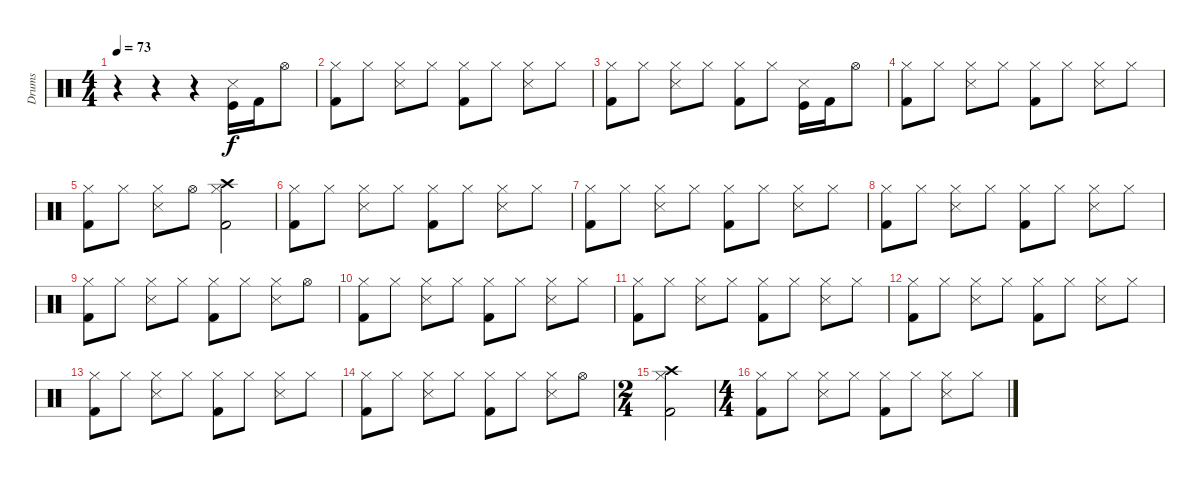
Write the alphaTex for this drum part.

\track ("Drums" "Drums") {instrument percussion}
\staff {score}
\articulation defaults
\ts (4 4)
\tempo 73
\clef neutral
\ks c
r.4{dy f} r.4 r.4 ("Snare (side stick) 3" "Kick (hit)").16 "Kick (hit) 2".16 "Hi-Hat (open)".8 |
("Hi-Hat (closed)" "Kick (hit) 2").8 "Hi-Hat (closed)".8 ("Hi-Hat (closed)" "Snare (side stick) 3").8 "Hi-Hat (closed)".8 ("Hi-Hat (closed)" "Kick (hit) 2").8 "Hi-Hat (closed)".8 ("Hi-Hat (closed)" "Snare (side stick) 3").8 "Hi-Hat (closed)".8 |
("Hi-Hat (closed)" "Kick (hit) 2").8 "Hi-Hat (closed)".8 ("Hi-Hat (closed)" "Snare (side stick) 3").8 "Hi-Hat (closed)".8 ("Hi-Hat (closed)" "Kick (hit) 2").8 "Hi-Hat (closed)".8 ("Snare (side stick) 3" "Kick (hit)").16 "Kick (hit) 2".16 "Hi-Hat (open)".8 |
("Hi-Hat (closed)" "Kick (hit) 2").8 "Hi-Hat (closed)".8 ("Hi-Hat (closed)" "Snare (side stick) 3").8 "Hi-Hat (closed)".8 ("Hi-Hat (closed)" "Kick (hit) 2").8 "Hi-Hat (closed)".8 ("Hi-Hat (closed)" "Snare (side stick) 3").8 "Hi-Hat (closed)".8 |
("Hi-Hat (closed)" "Kick (hit) 2").8 "Hi-Hat (closed)".8 ("Hi-Hat (closed)" "Snare (side stick) 3").8 "Hi-Hat (open)".8 ("Hi-Hat (closed)" "Kick (hit) 2" "Crash high (hit)").2 |
("Hi-Hat (closed)" "Kick (hit) 2").8 "Hi-Hat (closed)".8 ("Hi-Hat (closed)" "Snare (side stick) 3").8 "Hi-Hat (closed)".8 ("Hi-Hat (closed)" "Kick (hit) 2").8 "Hi-Hat (closed)".8 ("Hi-Hat (closed)" "Snare (side stick) 3").8 "Hi-Hat (closed)".8 |
("Hi-Hat (closed)" "Kick (hit) 2").8 "Hi-Hat (closed)".8 ("Hi-Hat (closed)" "Snare (side stick) 3").8 "Hi-Hat (closed)".8 ("Hi-Hat (closed)" "Kick (hit) 2").8 "Hi-Hat (closed)".8 ("Hi-Hat (closed)" "Snare (side stick) 3").8 "Hi-Hat (closed)".8 |
("Hi-Hat (closed)" "Kick (hit) 2").8 "Hi-Hat (closed)".8 ("Hi-Hat (closed)" "Snare (side stick) 3").8 "Hi-Hat (closed)".8 ("Hi-Hat (closed)" "Kick (hit) 2").8 "Hi-Hat (closed)".8 ("Hi-Hat (closed)" "Snare (side stick) 3").8 "Hi-Hat (closed)".8 |
("Hi-Hat (closed)" "Kick (hit) 2").8 "Hi-Hat (closed)".8 ("Hi-Hat (closed)" "Snare (side stick) 3").8 "Hi-Hat (closed)".8 ("Hi-Hat (closed)" "Kick (hit) 2").8 "Hi-Hat (closed)".8 ("Hi-Hat (closed)" "Snare (side stick) 3").8 "Hi-Hat (open)".8 |
("Hi-Hat (closed)" "Kick (hit) 2").8 "Hi-Hat (closed)".8 ("Hi-Hat (closed)" "Snare (side stick) 3").8 "Hi-Hat (closed)".8 ("Hi-Hat (closed)" "Kick (hit) 2").8 "Hi-Hat (closed)".8 ("Hi-Hat (closed)" "Snare (side stick) 3").8 "Hi-Hat (closed)".8 |
("Hi-Hat (closed)" "Kick (hit) 2").8 "Hi-Hat (closed)".8 ("Hi-Hat (closed)" "Snare (side stick) 3").8 "Hi-Hat (closed)".8 ("Hi-Hat (closed)" "Kick (hit) 2").8 "Hi-Hat (closed)".8 ("Hi-Hat (closed)" "Snare (side stick) 3").8 "Hi-Hat (closed)".8 |
("Hi-Hat (closed)" "Kick (hit) 2").8 "Hi-Hat (closed)".8 ("Hi-Hat (closed)" "Snare (side stick) 3").8 "Hi-Hat (closed)".8 ("Hi-Hat (closed)" "Kick (hit) 2").8 "Hi-Hat (closed)".8 ("Hi-Hat (closed)" "Snare (side stick) 3").8 "Hi-Hat (closed)".8 |
("Hi-Hat (closed)" "Kick (hit) 2").8 "Hi-Hat (closed)".8 ("Hi-Hat (closed)" "Snare (side stick) 3").8 "Hi-Hat (closed)".8 ("Hi-Hat (closed)" "Kick (hit) 2").8 "Hi-Hat (closed)".8 ("Hi-Hat (closed)" "Snare (side stick) 3").8 "Hi-Hat (closed)".8 |
("Hi-Hat (closed)" "Kick (hit) 2").8 "Hi-Hat (closed)".8 ("Hi-Hat (closed)" "Snare (side stick) 3").8 "Hi-Hat (closed)".8 ("Hi-Hat (closed)" "Kick (hit) 2").8 "Hi-Hat (closed)".8 ("Hi-Hat (closed)" "Snare (side stick) 3").8 "Hi-Hat (open)".8 |
\ts (2 4)
("Hi-Hat (closed)" "Kick (hit) 2" "Crash high (hit)").2 |
\ts (4 4)
("Hi-Hat (closed)" "Kick (hit) 2").8 "Hi-Hat (closed)".8 ("Hi-Hat (closed)" "Snare (side stick) 3").8 "Hi-Hat (closed)".8 ("Hi-Hat (closed)" "Kick (hit) 2").8 "Hi-Hat (closed)".8 ("Hi-Hat (closed)" "Snare (side stick) 3").8 "Hi-Hat (closed)".8
